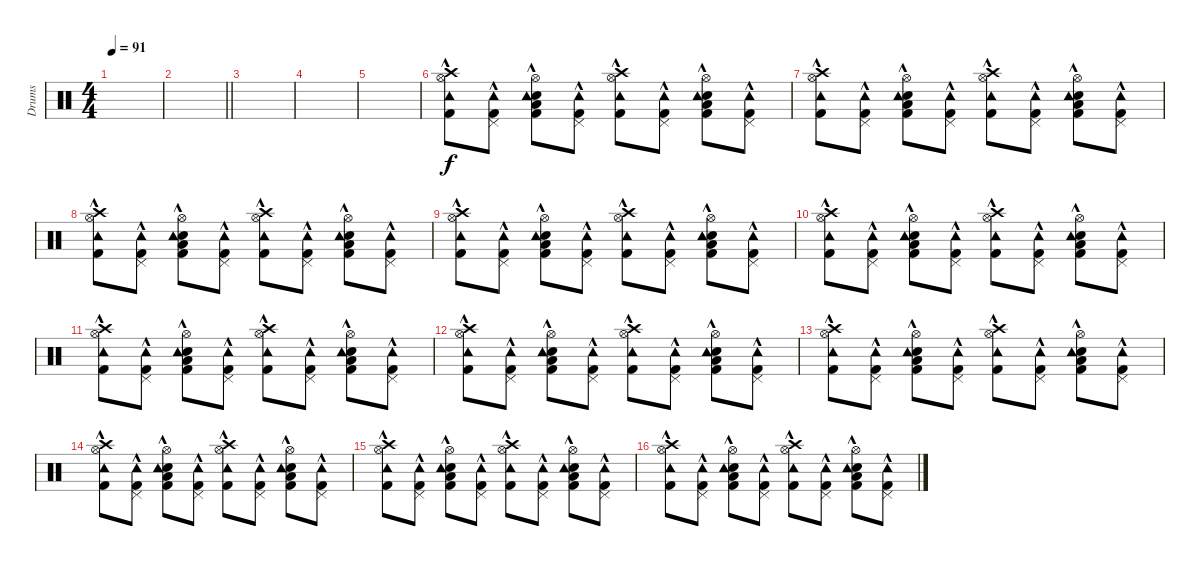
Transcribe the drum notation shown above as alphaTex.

\track ("Drums" "Drums") {instrument percussion}
\staff {score}
\articulation defaults
\ts (4 4)
\tempo 91
\clef neutral
\ks c
|
\barLineRight lightlight
|
|
|
|
("Crash high (hit)"{hac} "Hi-Hat (open)"{hac} "Kick (hit) 2"{hac} "Tambourine (hit)"{hac}).8 ("Pedal Hi-Hat (hit)" "Kick (hit) 2"{hac} "Tambourine (hit)"{hac}).8 ("Hand Clap (hit)"{hac} "Hi-Hat (open)"{hac} "Low Floor Tom (hit)"{hac} "Kick (hit) 2"{hac} "Tambourine (hit)"{hac}).8 ("Pedal Hi-Hat (hit)" "Kick (hit) 2"{hac} "Tambourine (hit)"{hac}).8 ("Crash high (hit)"{hac} "Hi-Hat (open)"{hac} "Kick (hit) 2"{hac} "Tambourine (hit)"{hac}).8 ("Pedal Hi-Hat (hit)" "Kick (hit) 2"{hac} "Tambourine (hit)"{hac}).8 ("Hand Clap (hit)"{hac} "Hi-Hat (open)"{hac} "Low Floor Tom (hit)"{hac} "Kick (hit) 2"{hac} "Tambourine (hit)"{hac}).8 ("Pedal Hi-Hat (hit)" "Kick (hit) 2"{hac} "Tambourine (hit)"{hac}).8 |
("Crash high (hit)"{hac} "Hi-Hat (open)"{hac} "Kick (hit) 2"{hac} "Tambourine (hit)"{hac}).8 ("Pedal Hi-Hat (hit)" "Kick (hit) 2"{hac} "Tambourine (hit)"{hac}).8 ("Hand Clap (hit)"{hac} "Hi-Hat (open)"{hac} "Low Floor Tom (hit)"{hac} "Kick (hit) 2"{hac} "Tambourine (hit)"{hac}).8 ("Pedal Hi-Hat (hit)" "Kick (hit) 2"{hac} "Tambourine (hit)"{hac}).8 ("Crash high (hit)"{hac} "Hi-Hat (open)"{hac} "Kick (hit) 2"{hac} "Tambourine (hit)"{hac}).8 ("Pedal Hi-Hat (hit)" "Kick (hit) 2"{hac} "Tambourine (hit)"{hac}).8 ("Hand Clap (hit)"{hac} "Hi-Hat (open)"{hac} "Low Floor Tom (hit)"{hac} "Kick (hit) 2"{hac} "Tambourine (hit)"{hac}).8 ("Pedal Hi-Hat (hit)" "Kick (hit) 2"{hac} "Tambourine (hit)"{hac}).8 |
("Crash high (hit)"{hac} "Hi-Hat (open)"{hac} "Kick (hit) 2"{hac} "Tambourine (hit)"{hac}).8 ("Pedal Hi-Hat (hit)" "Kick (hit) 2"{hac} "Tambourine (hit)"{hac}).8 ("Hand Clap (hit)"{hac} "Hi-Hat (open)"{hac} "Low Floor Tom (hit)"{hac} "Kick (hit) 2"{hac} "Tambourine (hit)"{hac}).8 ("Pedal Hi-Hat (hit)" "Kick (hit) 2"{hac} "Tambourine (hit)"{hac}).8 ("Crash high (hit)"{hac} "Hi-Hat (open)"{hac} "Kick (hit) 2"{hac} "Tambourine (hit)"{hac}).8 ("Pedal Hi-Hat (hit)" "Kick (hit) 2"{hac} "Tambourine (hit)"{hac}).8 ("Hand Clap (hit)"{hac} "Hi-Hat (open)"{hac} "Low Floor Tom (hit)"{hac} "Kick (hit) 2"{hac} "Tambourine (hit)"{hac}).8 ("Pedal Hi-Hat (hit)" "Kick (hit) 2"{hac} "Tambourine (hit)"{hac}).8 |
("Crash high (hit)"{hac} "Hi-Hat (open)"{hac} "Kick (hit) 2"{hac} "Tambourine (hit)"{hac}).8 ("Pedal Hi-Hat (hit)" "Kick (hit) 2"{hac} "Tambourine (hit)"{hac}).8 ("Hand Clap (hit)"{hac} "Hi-Hat (open)"{hac} "Low Floor Tom (hit)"{hac} "Kick (hit) 2"{hac} "Tambourine (hit)"{hac}).8 ("Pedal Hi-Hat (hit)" "Kick (hit) 2"{hac} "Tambourine (hit)"{hac}).8 ("Crash high (hit)"{hac} "Hi-Hat (open)"{hac} "Kick (hit) 2"{hac} "Tambourine (hit)"{hac}).8 ("Pedal Hi-Hat (hit)" "Kick (hit) 2"{hac} "Tambourine (hit)"{hac}).8 ("Hand Clap (hit)"{hac} "Hi-Hat (open)"{hac} "Low Floor Tom (hit)"{hac} "Kick (hit) 2"{hac} "Tambourine (hit)"{hac}).8 ("Pedal Hi-Hat (hit)" "Kick (hit) 2"{hac} "Tambourine (hit)"{hac}).8 |
("Crash high (hit)"{hac} "Hi-Hat (open)"{hac} "Kick (hit) 2"{hac} "Tambourine (hit)"{hac}).8 ("Pedal Hi-Hat (hit)" "Kick (hit) 2"{hac} "Tambourine (hit)"{hac}).8 ("Hand Clap (hit)"{hac} "Hi-Hat (open)"{hac} "Low Floor Tom (hit)"{hac} "Kick (hit) 2"{hac} "Tambourine (hit)"{hac}).8 ("Pedal Hi-Hat (hit)" "Kick (hit) 2"{hac} "Tambourine (hit)"{hac}).8 ("Crash high (hit)"{hac} "Hi-Hat (open)"{hac} "Kick (hit) 2"{hac} "Tambourine (hit)"{hac}).8 ("Pedal Hi-Hat (hit)" "Kick (hit) 2"{hac} "Tambourine (hit)"{hac}).8 ("Hand Clap (hit)"{hac} "Hi-Hat (open)"{hac} "Low Floor Tom (hit)"{hac} "Kick (hit) 2"{hac} "Tambourine (hit)"{hac}).8 ("Pedal Hi-Hat (hit)" "Kick (hit) 2"{hac} "Tambourine (hit)"{hac}).8 |
("Crash high (hit)"{hac} "Hi-Hat (open)"{hac} "Kick (hit) 2"{hac} "Tambourine (hit)"{hac}).8 ("Pedal Hi-Hat (hit)" "Kick (hit) 2"{hac} "Tambourine (hit)"{hac}).8 ("Hand Clap (hit)"{hac} "Hi-Hat (open)"{hac} "Low Floor Tom (hit)"{hac} "Kick (hit) 2"{hac} "Tambourine (hit)"{hac}).8 ("Pedal Hi-Hat (hit)" "Kick (hit) 2"{hac} "Tambourine (hit)"{hac}).8 ("Crash high (hit)"{hac} "Hi-Hat (open)"{hac} "Kick (hit) 2"{hac} "Tambourine (hit)"{hac}).8 ("Pedal Hi-Hat (hit)" "Kick (hit) 2"{hac} "Tambourine (hit)"{hac}).8 ("Hand Clap (hit)"{hac} "Hi-Hat (open)"{hac} "Low Floor Tom (hit)"{hac} "Kick (hit) 2"{hac} "Tambourine (hit)"{hac}).8 ("Pedal Hi-Hat (hit)" "Kick (hit) 2"{hac} "Tambourine (hit)"{hac}).8 |
("Crash high (hit)"{hac} "Hi-Hat (open)"{hac} "Kick (hit) 2"{hac} "Tambourine (hit)"{hac}).8 ("Pedal Hi-Hat (hit)" "Kick (hit) 2"{hac} "Tambourine (hit)"{hac}).8 ("Hand Clap (hit)"{hac} "Hi-Hat (open)"{hac} "Low Floor Tom (hit)"{hac} "Kick (hit) 2"{hac} "Tambourine (hit)"{hac}).8 ("Pedal Hi-Hat (hit)" "Kick (hit) 2"{hac} "Tambourine (hit)"{hac}).8 ("Crash high (hit)"{hac} "Hi-Hat (open)"{hac} "Kick (hit) 2"{hac} "Tambourine (hit)"{hac}).8 ("Pedal Hi-Hat (hit)" "Kick (hit) 2"{hac} "Tambourine (hit)"{hac}).8 ("Hand Clap (hit)"{hac} "Hi-Hat (open)"{hac} "Low Floor Tom (hit)"{hac} "Kick (hit) 2"{hac} "Tambourine (hit)"{hac}).8 ("Pedal Hi-Hat (hit)" "Kick (hit) 2"{hac} "Tambourine (hit)"{hac}).8 |
("Crash high (hit)"{hac} "Hi-Hat (open)"{hac} "Kick (hit) 2"{hac} "Tambourine (hit)"{hac}).8 ("Pedal Hi-Hat (hit)" "Kick (hit) 2"{hac} "Tambourine (hit)"{hac}).8 ("Hand Clap (hit)"{hac} "Hi-Hat (open)"{hac} "Low Floor Tom (hit)"{hac} "Kick (hit) 2"{hac} "Tambourine (hit)"{hac}).8 ("Pedal Hi-Hat (hit)" "Kick (hit) 2"{hac} "Tambourine (hit)"{hac}).8 ("Crash high (hit)"{hac} "Hi-Hat (open)"{hac} "Kick (hit) 2"{hac} "Tambourine (hit)"{hac}).8 ("Pedal Hi-Hat (hit)" "Kick (hit) 2"{hac} "Tambourine (hit)"{hac}).8 ("Hand Clap (hit)"{hac} "Hi-Hat (open)"{hac} "Low Floor Tom (hit)"{hac} "Kick (hit) 2"{hac} "Tambourine (hit)"{hac}).8 ("Pedal Hi-Hat (hit)" "Kick (hit) 2"{hac} "Tambourine (hit)"{hac}).8 |
("Crash high (hit)"{hac} "Hi-Hat (open)"{hac} "Kick (hit) 2"{hac} "Tambourine (hit)"{hac}).8 ("Pedal Hi-Hat (hit)" "Kick (hit) 2"{hac} "Tambourine (hit)"{hac}).8 ("Hand Clap (hit)"{hac} "Hi-Hat (open)"{hac} "Low Floor Tom (hit)"{hac} "Kick (hit) 2"{hac} "Tambourine (hit)"{hac}).8 ("Pedal Hi-Hat (hit)" "Kick (hit) 2"{hac} "Tambourine (hit)"{hac}).8 ("Crash high (hit)"{hac} "Hi-Hat (open)"{hac} "Kick (hit) 2"{hac} "Tambourine (hit)"{hac}).8 ("Pedal Hi-Hat (hit)" "Kick (hit) 2"{hac} "Tambourine (hit)"{hac}).8 ("Hand Clap (hit)"{hac} "Hi-Hat (open)"{hac} "Low Floor Tom (hit)"{hac} "Kick (hit) 2"{hac} "Tambourine (hit)"{hac}).8 ("Pedal Hi-Hat (hit)" "Kick (hit) 2"{hac} "Tambourine (hit)"{hac}).8 |
("Crash high (hit)"{hac} "Hi-Hat (open)"{hac} "Kick (hit) 2"{hac} "Tambourine (hit)"{hac}).8 ("Pedal Hi-Hat (hit)" "Kick (hit) 2"{hac} "Tambourine (hit)"{hac}).8 ("Hand Clap (hit)"{hac} "Hi-Hat (open)"{hac} "Low Floor Tom (hit)"{hac} "Kick (hit) 2"{hac} "Tambourine (hit)"{hac}).8 ("Pedal Hi-Hat (hit)" "Kick (hit) 2"{hac} "Tambourine (hit)"{hac}).8 ("Crash high (hit)"{hac} "Hi-Hat (open)"{hac} "Kick (hit) 2"{hac} "Tambourine (hit)"{hac}).8 ("Pedal Hi-Hat (hit)" "Kick (hit) 2"{hac} "Tambourine (hit)"{hac}).8 ("Hand Clap (hit)"{hac} "Hi-Hat (open)"{hac} "Low Floor Tom (hit)"{hac} "Kick (hit) 2"{hac} "Tambourine (hit)"{hac}).8 ("Pedal Hi-Hat (hit)" "Kick (hit) 2"{hac} "Tambourine (hit)"{hac}).8 |
("Crash high (hit)"{hac} "Hi-Hat (open)"{hac} "Kick (hit) 2"{hac} "Tambourine (hit)"{hac}).8 ("Pedal Hi-Hat (hit)" "Kick (hit) 2"{hac} "Tambourine (hit)"{hac}).8 ("Hand Clap (hit)"{hac} "Hi-Hat (open)"{hac} "Low Floor Tom (hit)"{hac} "Kick (hit) 2"{hac} "Tambourine (hit)"{hac}).8 ("Pedal Hi-Hat (hit)" "Kick (hit) 2"{hac} "Tambourine (hit)"{hac}).8 ("Crash high (hit)"{hac} "Hi-Hat (open)"{hac} "Kick (hit) 2"{hac} "Tambourine (hit)"{hac}).8 ("Pedal Hi-Hat (hit)" "Kick (hit) 2"{hac} "Tambourine (hit)"{hac}).8 ("Hand Clap (hit)"{hac} "Hi-Hat (open)"{hac} "Low Floor Tom (hit)"{hac} "Kick (hit) 2"{hac} "Tambourine (hit)"{hac}).8 ("Pedal Hi-Hat (hit)" "Kick (hit) 2"{hac} "Tambourine (hit)"{hac}).8
